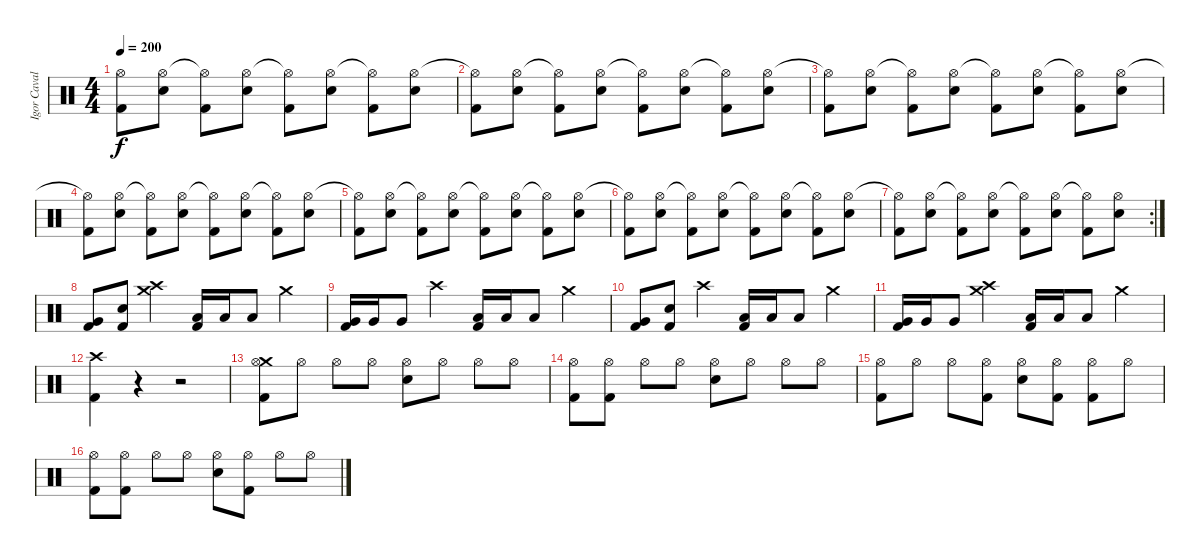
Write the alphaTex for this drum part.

\track ("Igor Cavalera" "Igor Caval") {instrument percussion}
\staff {score}
\articulation defaults
\ts (4 4)
\tempo 200
\clef neutral
\ks c
("Kick (hit) 2" "Hi-Hat (open)"{t}).8{dy f} ("Snare (hit) 2" "Hi-Hat (open)").8 ("Kick (hit) 2" "Hi-Hat (open)"{t}).8 ("Snare (hit) 2" "Hi-Hat (open)").8 ("Kick (hit) 2" "Hi-Hat (open)"{t}).8 ("Snare (hit) 2" "Hi-Hat (open)").8 ("Kick (hit) 2" "Hi-Hat (open)"{t}).8 ("Snare (hit) 2" "Hi-Hat (open)").8 |
("Kick (hit) 2" "Hi-Hat (open)"{t}).8 ("Snare (hit) 2" "Hi-Hat (open)").8 ("Kick (hit) 2" "Hi-Hat (open)"{t}).8 ("Snare (hit) 2" "Hi-Hat (open)").8 ("Kick (hit) 2" "Hi-Hat (open)"{t}).8 ("Snare (hit) 2" "Hi-Hat (open)").8 ("Kick (hit) 2" "Hi-Hat (open)"{t}).8 ("Snare (hit) 2" "Hi-Hat (open)").8 |
("Kick (hit) 2" "Hi-Hat (open)"{t}).8 ("Snare (hit) 2" "Hi-Hat (open)").8 ("Kick (hit) 2" "Hi-Hat (open)"{t}).8 ("Snare (hit) 2" "Hi-Hat (open)").8 ("Kick (hit) 2" "Hi-Hat (open)"{t}).8 ("Snare (hit) 2" "Hi-Hat (open)").8 ("Kick (hit) 2" "Hi-Hat (open)"{t}).8 ("Snare (hit) 2" "Hi-Hat (open)").8 |
("Kick (hit) 2" "Hi-Hat (open)"{t}).8 ("Snare (hit) 2" "Hi-Hat (open)").8 ("Kick (hit) 2" "Hi-Hat (open)"{t}).8 ("Snare (hit) 2" "Hi-Hat (open)").8 ("Kick (hit) 2" "Hi-Hat (open)"{t}).8 ("Snare (hit) 2" "Hi-Hat (open)").8 ("Kick (hit) 2" "Hi-Hat (open)"{t}).8 ("Snare (hit) 2" "Hi-Hat (open)").8 |
("Kick (hit) 2" "Hi-Hat (open)"{t}).8 ("Snare (hit) 2" "Hi-Hat (open)").8 ("Kick (hit) 2" "Hi-Hat (open)"{t}).8 ("Snare (hit) 2" "Hi-Hat (open)").8 ("Kick (hit) 2" "Hi-Hat (open)"{t}).8 ("Snare (hit) 2" "Hi-Hat (open)").8 ("Kick (hit) 2" "Hi-Hat (open)"{t}).8 ("Snare (hit) 2" "Hi-Hat (open)").8 |
("Kick (hit) 2" "Hi-Hat (open)"{t}).8 ("Snare (hit) 2" "Hi-Hat (open)").8 ("Kick (hit) 2" "Hi-Hat (open)"{t}).8 ("Snare (hit) 2" "Hi-Hat (open)").8 ("Kick (hit) 2" "Hi-Hat (open)"{t}).8 ("Snare (hit) 2" "Hi-Hat (open)").8 ("Kick (hit) 2" "Hi-Hat (open)"{t}).8 ("Snare (hit) 2" "Hi-Hat (open)").8 |
\rc 2
("Kick (hit) 2" "Hi-Hat (open)"{t}).8 ("Snare (hit) 2" "Hi-Hat (open)").8 ("Kick (hit) 2" "Hi-Hat (open)"{t}).8 ("Snare (hit) 2" "Hi-Hat (open)").8 ("Kick (hit) 2" "Hi-Hat (open)"{t}).8 ("Snare (hit) 2" "Hi-Hat (open)").8 ("Kick (hit) 2" "Hi-Hat (open)"{t}).8 ("Snare (hit) 2" "Hi-Hat (open)").8 |
("Kick (hit) 2" "Very Low Tom (hit)").8 ("Kick (hit) 2" "Snare (hit) 2").8 ("Crash high (hit)" "Crash medium (hit)").4 ("Kick (hit) 2" "Low Tom (hit)").16 "Low Tom (hit)".16 "Low Tom (hit)".8 "Crash medium (hit)".4 |
("Kick (hit) 2" "Very Low Tom (hit)").16 "Very Low Tom (hit)".16 "Very Low Tom (hit)".8 "Crash high (hit)".4 ("Kick (hit) 2" "Low Floor Tom (hit)").16 "Low Floor Tom (hit)".16 "Low Floor Tom (hit)".8 "Crash medium (hit)".4 |
("Kick (hit) 2" "Very Low Tom (hit)").8 ("Kick (hit) 2" "Snare (hit) 2").8 "Crash high (hit)".4 ("Kick (hit) 2" "Low Tom (hit)").16 "Low Tom (hit)".16 "Low Tom (hit)".8 "Crash medium (hit)".4 |
("Kick (hit) 2" "Very Low Tom (hit)").16 "Very Low Tom (hit)".16 "Very Low Tom (hit)".8 ("Crash high (hit)" "Crash medium (hit)").4 ("Kick (hit) 2" "Low Floor Tom (hit)").16 "Low Floor Tom (hit)".16 "Low Floor Tom (hit)".8 "Crash medium (hit)".4 |
("Kick (hit) 2" "Crash high (hit)").4 r.4 r.2 |
("Kick (hit) 2" "Crash medium (hit)" "Hi-Hat (open)").8 "Hi-Hat (open)".8 "Hi-Hat (open)".8 "Hi-Hat (open)".8 ("Snare (hit) 2" "Hi-Hat (open)").8 "Hi-Hat (open)".8 "Hi-Hat (open)".8 "Hi-Hat (open)".8 |
("Kick (hit) 2" "Hi-Hat (open)").8 ("Kick (hit) 2" "Hi-Hat (open)").8 "Hi-Hat (open)".8 "Hi-Hat (open)".8 ("Snare (hit) 2" "Hi-Hat (open)").8 "Hi-Hat (open)".8 "Hi-Hat (open)".8 "Hi-Hat (open)".8 |
("Kick (hit) 2" "Hi-Hat (open)").8 "Hi-Hat (open)".8 "Hi-Hat (open)".8 ("Kick (hit) 2" "Hi-Hat (open)").8 ("Snare (hit) 2" "Hi-Hat (open)").8 ("Kick (hit) 2" "Hi-Hat (open)").8 ("Kick (hit) 2" "Hi-Hat (open)").8 "Hi-Hat (open)".8 |
("Kick (hit) 2" "Hi-Hat (open)").8 ("Kick (hit) 2" "Hi-Hat (open)").8 "Hi-Hat (open)".8 "Hi-Hat (open)".8 ("Snare (hit) 2" "Hi-Hat (open)").8 ("Kick (hit) 2" "Hi-Hat (open)").8 "Hi-Hat (open)".8 "Hi-Hat (open)".8
